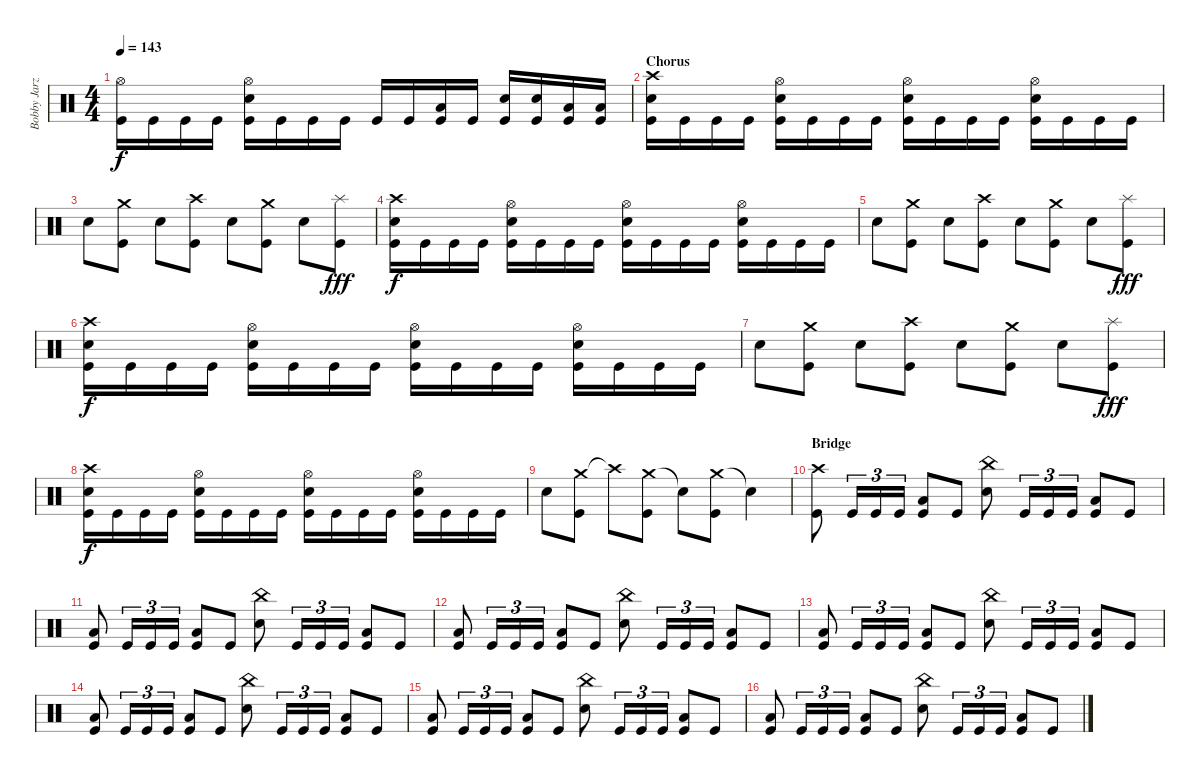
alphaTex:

\track ("Bobby Jarzombek" "Bobby Jarz") {instrument percussion}
\staff {score}
\articulation defaults
\ts (4 4)
\tempo 143
\clef neutral
\ks c
("Hi-Hat (open)" "Kick (hit)").16{dy f} "Kick (hit)".16 "Kick (hit)".16 "Kick (hit)".16 ("Hi-Hat (open)" "Electric Snare (hit)" "Kick (hit)").16 "Kick (hit)".16 "Kick (hit)".16 "Kick (hit)".16 "Kick (hit)".16 "Kick (hit)".16 ("Low Tom (hit)" "Kick (hit)").16 "Kick (hit)".16 ("Electric Snare (hit)" "Kick (hit)").16 ("Electric Snare (hit)" "Kick (hit)").16 ("Low Tom (hit)" "Kick (hit)").16 ("Low Tom (hit)" "Kick (hit)").16 |
\section ("" "Chorus")
("Crash high (hit)" "Electric Snare (hit)" "Kick (hit)").16 "Kick (hit)".16 "Kick (hit)".16 "Kick (hit)".16 ("Hi-Hat (open)" "Electric Snare (hit)" "Kick (hit)").16 "Kick (hit)".16 "Kick (hit)".16 "Kick (hit)".16 ("Hi-Hat (open)" "Electric Snare (hit)" "Kick (hit)").16 "Kick (hit)".16 "Kick (hit)".16 "Kick (hit)".16 ("Hi-Hat (open)" "Electric Snare (hit)" "Kick (hit)").16 "Kick (hit)".16 "Kick (hit)".16 "Kick (hit)".16 |
"Electric Snare (hit)".8 ("Crash medium (hit)" "Kick (hit)").8 "Electric Snare (hit)".8 ("Crash high (hit)" "Kick (hit)").8 "Electric Snare (hit)".8 ("Crash medium (hit)" "Kick (hit)").8 "Electric Snare (hit)".8 ("Splash (hit)" "Kick (hit)").8{dy fff} |
("Crash high (hit)" "Electric Snare (hit)" "Kick (hit)").16{dy f} "Kick (hit)".16 "Kick (hit)".16 "Kick (hit)".16 ("Hi-Hat (open)" "Electric Snare (hit)" "Kick (hit)").16 "Kick (hit)".16 "Kick (hit)".16 "Kick (hit)".16 ("Hi-Hat (open)" "Electric Snare (hit)" "Kick (hit)").16 "Kick (hit)".16 "Kick (hit)".16 "Kick (hit)".16 ("Hi-Hat (open)" "Electric Snare (hit)" "Kick (hit)").16 "Kick (hit)".16 "Kick (hit)".16 "Kick (hit)".16 |
"Electric Snare (hit)".8 ("Crash medium (hit)" "Kick (hit)").8 "Electric Snare (hit)".8 ("Crash high (hit)" "Kick (hit)").8 "Electric Snare (hit)".8 ("Crash medium (hit)" "Kick (hit)").8 "Electric Snare (hit)".8 ("Splash (hit)" "Kick (hit)").8{dy fff} |
("Crash high (hit)" "Electric Snare (hit)" "Kick (hit)").16{dy f} "Kick (hit)".16 "Kick (hit)".16 "Kick (hit)".16 ("Hi-Hat (open)" "Electric Snare (hit)" "Kick (hit)").16 "Kick (hit)".16 "Kick (hit)".16 "Kick (hit)".16 ("Hi-Hat (open)" "Electric Snare (hit)" "Kick (hit)").16 "Kick (hit)".16 "Kick (hit)".16 "Kick (hit)".16 ("Hi-Hat (open)" "Electric Snare (hit)" "Kick (hit)").16 "Kick (hit)".16 "Kick (hit)".16 "Kick (hit)".16 |
"Electric Snare (hit)".8 ("Crash medium (hit)" "Kick (hit)").8 "Electric Snare (hit)".8 ("Crash high (hit)" "Kick (hit)").8 "Electric Snare (hit)".8 ("Crash medium (hit)" "Kick (hit)").8 "Electric Snare (hit)".8 ("Splash (hit)" "Kick (hit)").8{dy fff} |
("Crash high (hit)" "Electric Snare (hit)" "Kick (hit)").16{dy f} "Kick (hit)".16 "Kick (hit)".16 "Kick (hit)".16 ("Hi-Hat (open)" "Electric Snare (hit)" "Kick (hit)").16 "Kick (hit)".16 "Kick (hit)".16 "Kick (hit)".16 ("Hi-Hat (open)" "Electric Snare (hit)" "Kick (hit)").16 "Kick (hit)".16 "Kick (hit)".16 "Kick (hit)".16 ("Hi-Hat (open)" "Electric Snare (hit)" "Kick (hit)").16 "Kick (hit)".16 "Kick (hit)".16 "Kick (hit)".16 |
"Electric Snare (hit)".8 ("Crash medium (hit)" "Kick (hit)").8 "Crash high (hit)"{t}.8{volume 0} ("Crash medium (hit)" "Kick (hit)").8{volume 13} "Snare (hit)"{t}.8{volume 0} ("Crash medium (hit)" "Kick (hit)").8{volume 13} "Snare (hit)"{t}.4 |
\section ("" "Bridge")
("Crash high (hit)" "Kick (hit)").8 "Kick (hit)".16{tu (3 2)} "Kick (hit)".16{tu (3 2)} "Kick (hit)".16{tu (3 2)} ("Low Tom (hit)" "Kick (hit)").8 "Kick (hit)".8 ("China (hit)" "Electric Snare (hit)").8 "Kick (hit)".16{tu (3 2)} "Kick (hit)".16{tu (3 2)} "Kick (hit)".16{tu (3 2)} ("Low Tom (hit)" "Kick (hit)").8 "Kick (hit)".8 |
("Low Tom (hit)" "Kick (hit)").8 "Kick (hit)".16{tu (3 2)} "Kick (hit)".16{tu (3 2)} "Kick (hit)".16{tu (3 2)} ("Low Tom (hit)" "Kick (hit)").8 "Kick (hit)".8 ("China (hit)" "Electric Snare (hit)").8 "Kick (hit)".16{tu (3 2)} "Kick (hit)".16{tu (3 2)} "Kick (hit)".16{tu (3 2)} ("Low Tom (hit)" "Kick (hit)").8 "Kick (hit)".8 |
("Low Tom (hit)" "Kick (hit)").8 "Kick (hit)".16{tu (3 2)} "Kick (hit)".16{tu (3 2)} "Kick (hit)".16{tu (3 2)} ("Low Tom (hit)" "Kick (hit)").8 "Kick (hit)".8 ("China (hit)" "Electric Snare (hit)").8 "Kick (hit)".16{tu (3 2)} "Kick (hit)".16{tu (3 2)} "Kick (hit)".16{tu (3 2)} ("Low Tom (hit)" "Kick (hit)").8 "Kick (hit)".8 |
("Low Tom (hit)" "Kick (hit)").8 "Kick (hit)".16{tu (3 2)} "Kick (hit)".16{tu (3 2)} "Kick (hit)".16{tu (3 2)} ("Low Tom (hit)" "Kick (hit)").8 "Kick (hit)".8 ("China (hit)" "Electric Snare (hit)").8 "Kick (hit)".16{tu (3 2)} "Kick (hit)".16{tu (3 2)} "Kick (hit)".16{tu (3 2)} ("Low Tom (hit)" "Kick (hit)").8 "Kick (hit)".8 |
("Low Tom (hit)" "Kick (hit)").8 "Kick (hit)".16{tu (3 2)} "Kick (hit)".16{tu (3 2)} "Kick (hit)".16{tu (3 2)} ("Low Tom (hit)" "Kick (hit)").8 "Kick (hit)".8 ("China (hit)" "Electric Snare (hit)").8 "Kick (hit)".16{tu (3 2)} "Kick (hit)".16{tu (3 2)} "Kick (hit)".16{tu (3 2)} ("Low Tom (hit)" "Kick (hit)").8 "Kick (hit)".8 |
("Low Tom (hit)" "Kick (hit)").8 "Kick (hit)".16{tu (3 2)} "Kick (hit)".16{tu (3 2)} "Kick (hit)".16{tu (3 2)} ("Low Tom (hit)" "Kick (hit)").8 "Kick (hit)".8 ("China (hit)" "Electric Snare (hit)").8 "Kick (hit)".16{tu (3 2)} "Kick (hit)".16{tu (3 2)} "Kick (hit)".16{tu (3 2)} ("Low Tom (hit)" "Kick (hit)").8 "Kick (hit)".8 |
("Low Tom (hit)" "Kick (hit)").8 "Kick (hit)".16{tu (3 2)} "Kick (hit)".16{tu (3 2)} "Kick (hit)".16{tu (3 2)} ("Low Tom (hit)" "Kick (hit)").8 "Kick (hit)".8 ("China (hit)" "Electric Snare (hit)").8 "Kick (hit)".16{tu (3 2)} "Kick (hit)".16{tu (3 2)} "Kick (hit)".16{tu (3 2)} ("Low Tom (hit)" "Kick (hit)").8 "Kick (hit)".8
